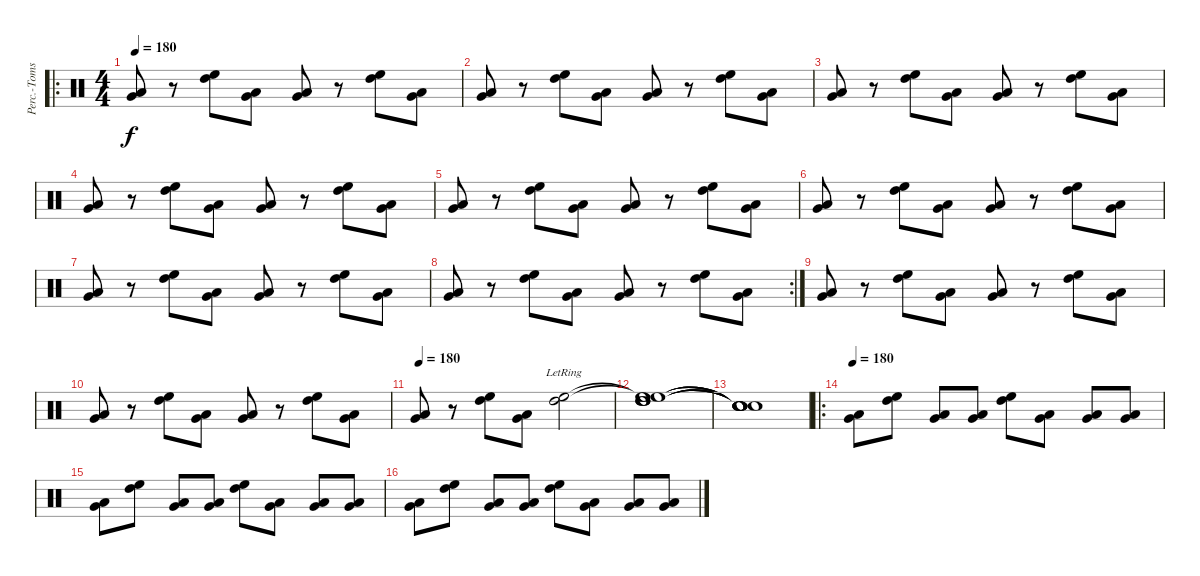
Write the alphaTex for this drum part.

\track ("Perc.-Toms 2" "Perc.-Toms") {instrument percussion}
\staff {score}
\articulation defaults
\ro
\ts (4 4)
\tempo 180
\clef neutral
\ks c
("Very Low Tom (hit)" "Low Floor Tom (hit)").8{dy f} r.8 ("High Floor Tom (hit)" "High Tom (hit)").8 ("Very Low Tom (hit)" "Low Floor Tom (hit)").8 ("Very Low Tom (hit)" "Low Floor Tom (hit)").8 r.8 ("High Floor Tom (hit)" "High Tom (hit)").8 ("Very Low Tom (hit)" "Low Floor Tom (hit)").8 |
("Very Low Tom (hit)" "Low Floor Tom (hit)").8 r.8 ("High Floor Tom (hit)" "High Tom (hit)").8 ("Very Low Tom (hit)" "Low Floor Tom (hit)").8 ("Very Low Tom (hit)" "Low Floor Tom (hit)").8 r.8 ("High Floor Tom (hit)" "High Tom (hit)").8 ("Very Low Tom (hit)" "Low Floor Tom (hit)").8 |
("Very Low Tom (hit)" "Low Floor Tom (hit)").8 r.8 ("High Floor Tom (hit)" "High Tom (hit)").8 ("Very Low Tom (hit)" "Low Floor Tom (hit)").8 ("Very Low Tom (hit)" "Low Floor Tom (hit)").8 r.8 ("High Floor Tom (hit)" "High Tom (hit)").8 ("Very Low Tom (hit)" "Low Floor Tom (hit)").8 |
("Very Low Tom (hit)" "Low Floor Tom (hit)").8 r.8 ("High Floor Tom (hit)" "High Tom (hit)").8 ("Very Low Tom (hit)" "Low Floor Tom (hit)").8 ("Very Low Tom (hit)" "Low Floor Tom (hit)").8 r.8 ("High Floor Tom (hit)" "High Tom (hit)").8 ("Very Low Tom (hit)" "Low Floor Tom (hit)").8 |
("Very Low Tom (hit)" "Low Floor Tom (hit)").8 r.8 ("High Floor Tom (hit)" "High Tom (hit)").8 ("Very Low Tom (hit)" "Low Floor Tom (hit)").8 ("Very Low Tom (hit)" "Low Floor Tom (hit)").8 r.8 ("High Floor Tom (hit)" "High Tom (hit)").8 ("Very Low Tom (hit)" "Low Floor Tom (hit)").8 |
("Very Low Tom (hit)" "Low Floor Tom (hit)").8 r.8 ("High Floor Tom (hit)" "High Tom (hit)").8 ("Very Low Tom (hit)" "Low Floor Tom (hit)").8 ("Very Low Tom (hit)" "Low Floor Tom (hit)").8 r.8 ("High Floor Tom (hit)" "High Tom (hit)").8 ("Very Low Tom (hit)" "Low Floor Tom (hit)").8 |
("Very Low Tom (hit)" "Low Floor Tom (hit)").8 r.8 ("High Floor Tom (hit)" "High Tom (hit)").8 ("Very Low Tom (hit)" "Low Floor Tom (hit)").8 ("Very Low Tom (hit)" "Low Floor Tom (hit)").8 r.8 ("High Floor Tom (hit)" "High Tom (hit)").8 ("Very Low Tom (hit)" "Low Floor Tom (hit)").8 |
\rc 2
("Very Low Tom (hit)" "Low Floor Tom (hit)").8 r.8 ("High Floor Tom (hit)" "High Tom (hit)").8 ("Very Low Tom (hit)" "Low Floor Tom (hit)").8 ("Very Low Tom (hit)" "Low Floor Tom (hit)").8 r.8 ("High Floor Tom (hit)" "High Tom (hit)").8 ("Very Low Tom (hit)" "Low Floor Tom (hit)").8 |
("Very Low Tom (hit)" "Low Floor Tom (hit)").8 r.8 ("High Floor Tom (hit)" "High Tom (hit)").8 ("Very Low Tom (hit)" "Low Floor Tom (hit)").8 ("Very Low Tom (hit)" "Low Floor Tom (hit)").8 r.8 ("High Floor Tom (hit)" "High Tom (hit)").8 ("Very Low Tom (hit)" "Low Floor Tom (hit)").8 |
("Very Low Tom (hit)" "Low Floor Tom (hit)").8 r.8 ("High Floor Tom (hit)" "High Tom (hit)").8 ("Very Low Tom (hit)" "Low Floor Tom (hit)").8 ("Very Low Tom (hit)" "Low Floor Tom (hit)").8 r.8 ("High Floor Tom (hit)" "High Tom (hit)").8 ("Very Low Tom (hit)" "Low Floor Tom (hit)").8 |
\tempo 180
("Very Low Tom (hit)" "Low Floor Tom (hit)").8 r.8 ("High Floor Tom (hit)" "High Tom (hit)").8 ("Very Low Tom (hit)" "Low Floor Tom (hit)").8 ("High Floor Tom (hit)"{lr} "High Tom (hit)"{lr}).2 |
("High Floor Tom (hit)"{t} "High Floor Tom (hit)"{t} "High Floor Tom (hit)" "High Tom (hit)" "High Tom (hit)" "High Tom (hit)").1 |
("Snare (hit)"{t} "Snare (hit)"{t} "Snare (hit)"{t} "Snare (hit)"{t} "Snare (hit)"{t} "Snare (hit)"{t}).1 |
\ro
\tempo 180
("Very Low Tom (hit)" "Low Floor Tom (hit)").8 ("High Floor Tom (hit)" "High Tom (hit)").8 ("Very Low Tom (hit)" "Low Floor Tom (hit)").8 ("Very Low Tom (hit)" "Low Floor Tom (hit)").8 ("High Floor Tom (hit)" "High Tom (hit)").8 ("Very Low Tom (hit)" "Low Floor Tom (hit)").8 ("Very Low Tom (hit)" "Low Floor Tom (hit)").8 ("Very Low Tom (hit)" "Low Floor Tom (hit)").8 |
("Very Low Tom (hit)" "Low Floor Tom (hit)").8 ("High Floor Tom (hit)" "High Tom (hit)").8 ("Very Low Tom (hit)" "Low Floor Tom (hit)").8 ("Very Low Tom (hit)" "Low Floor Tom (hit)").8 ("High Floor Tom (hit)" "High Tom (hit)").8 ("Very Low Tom (hit)" "Low Floor Tom (hit)").8 ("Very Low Tom (hit)" "Low Floor Tom (hit)").8 ("Very Low Tom (hit)" "Low Floor Tom (hit)").8 |
("Very Low Tom (hit)" "Low Floor Tom (hit)").8 ("High Floor Tom (hit)" "High Tom (hit)").8 ("Very Low Tom (hit)" "Low Floor Tom (hit)").8 ("Very Low Tom (hit)" "Low Floor Tom (hit)").8 ("High Floor Tom (hit)" "High Tom (hit)").8 ("Very Low Tom (hit)" "Low Floor Tom (hit)").8 ("Very Low Tom (hit)" "Low Floor Tom (hit)").8 ("Very Low Tom (hit)" "Low Floor Tom (hit)").8
